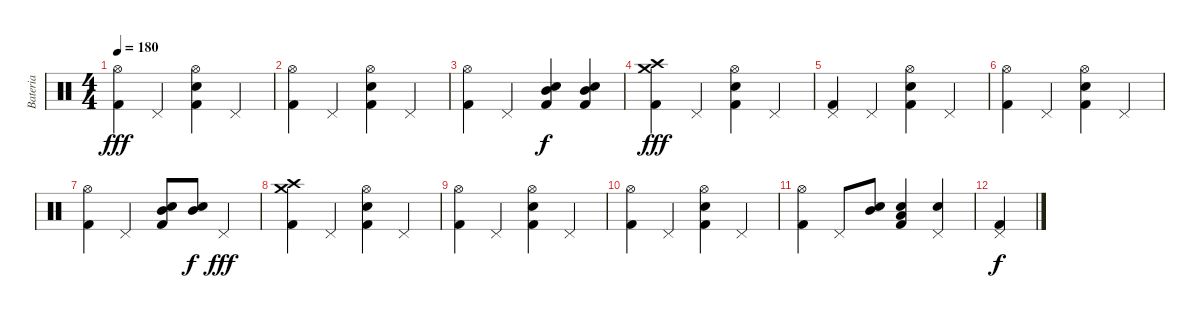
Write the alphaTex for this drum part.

\track ("Bateria" "Bateria") {instrument percussion}
\staff {score}
\articulation defaults
\ts (4 4)
\tempo 180
\clef neutral
\ks c
("Hi-Hat (open)" "Kick (hit) 2").4{dy fff} "Pedal Hi-Hat (hit)".4 ("Electric Snare (hit)" "Hi-Hat (open)" "Kick (hit) 2").4 "Pedal Hi-Hat (hit)".4 |
("Hi-Hat (open)" "Kick (hit) 2").4 "Pedal Hi-Hat (hit)".4 ("Electric Snare (hit)" "Hi-Hat (open)" "Kick (hit) 2").4 "Pedal Hi-Hat (hit)".4 |
("Hi-Hat (open)" "Kick (hit) 2").4 "Pedal Hi-Hat (hit)".4 ("Mid Tom (hit)" "Electric Snare (hit)" "Kick (hit) 2").4{dy f} ("Mid Tom (hit)" "Electric Snare (hit)" "Kick (hit) 2").4 |
("Crash medium (hit)" "Crash high (hit)" "Kick (hit) 2").4{dy fff} "Pedal Hi-Hat (hit)".4 ("Electric Snare (hit)" "Hi-Hat (open)" "Kick (hit) 2").4 "Pedal Hi-Hat (hit)".4 |
("Pedal Hi-Hat (hit)" "Kick (hit) 2").4 "Pedal Hi-Hat (hit)".4 ("Electric Snare (hit)" "Hi-Hat (open)" "Kick (hit) 2").4 "Pedal Hi-Hat (hit)".4 |
("Hi-Hat (open)" "Kick (hit) 2").4 "Pedal Hi-Hat (hit)".4 ("Electric Snare (hit)" "Hi-Hat (open)" "Kick (hit) 2").4 "Pedal Hi-Hat (hit)".4 |
("Hi-Hat (open)" "Kick (hit) 2").4 "Pedal Hi-Hat (hit)".4 ("Electric Snare (hit)" "Mid Tom (hit)" "Kick (hit) 2").8 ("Electric Snare (hit)" "Mid Tom (hit)").8{dy f} "Pedal Hi-Hat (hit)".4{dy fff} |
("Crash medium (hit)" "Crash high (hit)" "Kick (hit) 2").4 "Pedal Hi-Hat (hit)".4 ("Electric Snare (hit)" "Hi-Hat (open)" "Kick (hit) 2").4 "Pedal Hi-Hat (hit)".4 |
("Hi-Hat (open)" "Kick (hit) 2").4 "Pedal Hi-Hat (hit)".4 ("Electric Snare (hit)" "Hi-Hat (open)" "Kick (hit) 2").4 "Pedal Hi-Hat (hit)".4 |
("Hi-Hat (open)" "Kick (hit) 2").4 "Pedal Hi-Hat (hit)".4 ("Electric Snare (hit)" "Hi-Hat (open)" "Kick (hit) 2").4 "Pedal Hi-Hat (hit)".4 |
("Hi-Hat (open)" "Kick (hit) 2").4 "Pedal Hi-Hat (hit)".8 ("Electric Snare (hit)" "Mid Tom (hit)").8 ("Electric Snare (hit)" "Low Tom (hit)" "Kick (hit) 2").4 ("Electric Snare (hit)" "Pedal Hi-Hat (hit)").4 |
("Kick (hit) 2" "Pedal Hi-Hat (hit)").4{dy f}
